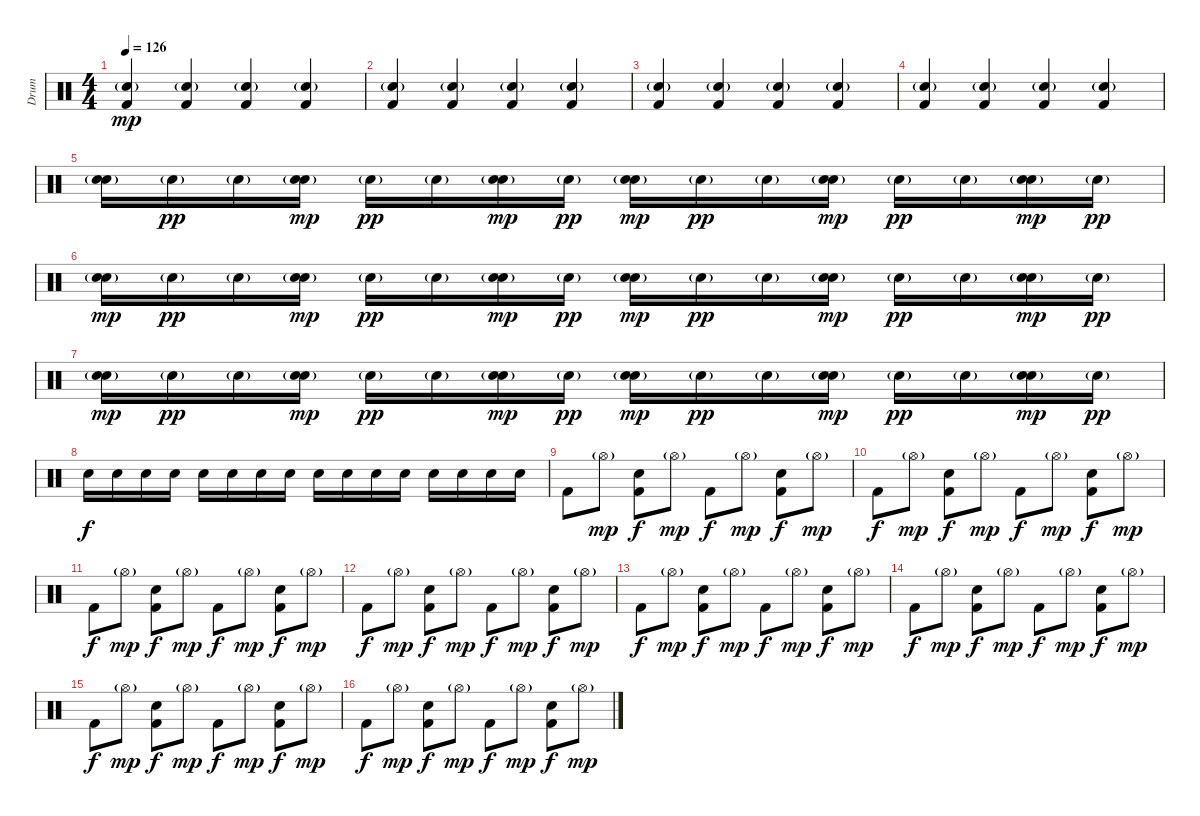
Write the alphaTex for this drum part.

\track ("Drum" "Drum") {instrument percussion}
\staff {score}
\articulation defaults
\ts (4 4)
\tempo 126
\clef neutral
\ks c
("Hand Clap (hit)"{g} "Kick (hit) 2").4{dy mp} ("Hand Clap (hit)"{g} "Kick (hit) 2").4 ("Hand Clap (hit)"{g} "Kick (hit) 2").4 ("Hand Clap (hit)"{g} "Kick (hit) 2").4 |
("Hand Clap (hit)"{g} "Kick (hit) 2").4 ("Hand Clap (hit)"{g} "Kick (hit) 2").4 ("Hand Clap (hit)"{g} "Kick (hit) 2").4 ("Hand Clap (hit)"{g} "Kick (hit) 2").4 |
("Hand Clap (hit)"{g} "Kick (hit) 2").4 ("Hand Clap (hit)"{g} "Kick (hit) 2").4 ("Hand Clap (hit)"{g} "Kick (hit) 2").4 ("Hand Clap (hit)"{g} "Kick (hit) 2").4 |
("Hand Clap (hit)"{g} "Kick (hit) 2").4 ("Hand Clap (hit)"{g} "Kick (hit) 2").4 ("Hand Clap (hit)"{g} "Kick (hit) 2").4 ("Hand Clap (hit)"{g} "Kick (hit) 2").4 |
("Snare (hit) 2" "Electric Snare (hit)"{g}).16 "Electric Snare (hit)"{g}.16{dy pp} "Electric Snare (hit)"{g}.16 ("Snare (hit) 2" "Electric Snare (hit)"{g}).16{dy mp} "Electric Snare (hit)"{g}.16{dy pp} "Electric Snare (hit)"{g}.16 ("Snare (hit) 2" "Electric Snare (hit)"{g}).16{dy mp} "Electric Snare (hit)"{g}.16{dy pp} ("Snare (hit) 2" "Electric Snare (hit)"{g}).16{dy mp} "Electric Snare (hit)"{g}.16{dy pp} "Electric Snare (hit)"{g}.16 ("Snare (hit) 2" "Electric Snare (hit)"{g}).16{dy mp} "Electric Snare (hit)"{g}.16{dy pp} "Electric Snare (hit)"{g}.16 ("Snare (hit) 2" "Electric Snare (hit)"{g}).16{dy mp} "Electric Snare (hit)"{g}.16{dy pp} |
("Snare (hit) 2" "Electric Snare (hit)"{g}).16{dy mp} "Electric Snare (hit)"{g}.16{dy pp} "Electric Snare (hit)"{g}.16 ("Snare (hit) 2" "Electric Snare (hit)"{g}).16{dy mp} "Electric Snare (hit)"{g}.16{dy pp} "Electric Snare (hit)"{g}.16 ("Snare (hit) 2" "Electric Snare (hit)"{g}).16{dy mp} "Electric Snare (hit)"{g}.16{dy pp} ("Snare (hit) 2" "Electric Snare (hit)"{g}).16{dy mp} "Electric Snare (hit)"{g}.16{dy pp} "Electric Snare (hit)"{g}.16 ("Snare (hit) 2" "Electric Snare (hit)"{g}).16{dy mp} "Electric Snare (hit)"{g}.16{dy pp} "Electric Snare (hit)"{g}.16 ("Snare (hit) 2" "Electric Snare (hit)"{g}).16{dy mp} "Electric Snare (hit)"{g}.16{dy pp} |
("Snare (hit) 2" "Electric Snare (hit)"{g}).16{dy mp} "Electric Snare (hit)"{g}.16{dy pp} "Electric Snare (hit)"{g}.16 ("Snare (hit) 2" "Electric Snare (hit)"{g}).16{dy mp} "Electric Snare (hit)"{g}.16{dy pp} "Electric Snare (hit)"{g}.16 ("Snare (hit) 2" "Electric Snare (hit)"{g}).16{dy mp} "Electric Snare (hit)"{g}.16{dy pp} ("Snare (hit) 2" "Electric Snare (hit)"{g}).16{dy mp} "Electric Snare (hit)"{g}.16{dy pp} "Electric Snare (hit)"{g}.16 ("Snare (hit) 2" "Electric Snare (hit)"{g}).16{dy mp} "Electric Snare (hit)"{g}.16{dy pp} "Electric Snare (hit)"{g}.16 ("Snare (hit) 2" "Electric Snare (hit)"{g}).16{dy mp} "Electric Snare (hit)"{g}.16{dy pp} |
"Snare (hit) 2".16{dy f} "Snare (hit) 2".16 "Snare (hit) 2".16 "Snare (hit) 2".16 "Snare (hit) 2".16 "Snare (hit) 2".16 "Snare (hit) 2".16 "Snare (hit) 2".16 "Snare (hit) 2".16 "Snare (hit) 2".16 "Snare (hit) 2".16 "Snare (hit) 2".16 "Snare (hit) 2".16 "Snare (hit) 2".16 "Snare (hit) 2".16 "Snare (hit) 2".16 |
"Kick (hit) 2".8{volume 14} "Hi-Hat (open)"{g}.8{dy mp} ("Electric Snare (hit)" "Kick (hit) 2").8{dy f} "Hi-Hat (open)"{g}.8{dy mp} "Kick (hit) 2".8{dy f} "Hi-Hat (open)"{g}.8{dy mp} ("Electric Snare (hit)" "Kick (hit) 2").8{dy f} "Hi-Hat (open)"{g}.8{dy mp} |
"Kick (hit) 2".8{dy f} "Hi-Hat (open)"{g}.8{dy mp} ("Electric Snare (hit)" "Kick (hit) 2").8{dy f} "Hi-Hat (open)"{g}.8{dy mp} "Kick (hit) 2".8{dy f} "Hi-Hat (open)"{g}.8{dy mp} ("Electric Snare (hit)" "Kick (hit) 2").8{dy f} "Hi-Hat (open)"{g}.8{dy mp} |
"Kick (hit) 2".8{dy f} "Hi-Hat (open)"{g}.8{dy mp} ("Electric Snare (hit)" "Kick (hit) 2").8{dy f} "Hi-Hat (open)"{g}.8{dy mp} "Kick (hit) 2".8{dy f} "Hi-Hat (open)"{g}.8{dy mp} ("Electric Snare (hit)" "Kick (hit) 2").8{dy f} "Hi-Hat (open)"{g}.8{dy mp} |
"Kick (hit) 2".8{dy f} "Hi-Hat (open)"{g}.8{dy mp} ("Electric Snare (hit)" "Kick (hit) 2").8{dy f} "Hi-Hat (open)"{g}.8{dy mp} "Kick (hit) 2".8{dy f} "Hi-Hat (open)"{g}.8{dy mp} ("Electric Snare (hit)" "Kick (hit) 2").8{dy f} "Hi-Hat (open)"{g}.8{dy mp} |
"Kick (hit) 2".8{dy f} "Hi-Hat (open)"{g}.8{dy mp} ("Electric Snare (hit)" "Kick (hit) 2").8{dy f} "Hi-Hat (open)"{g}.8{dy mp} "Kick (hit) 2".8{dy f} "Hi-Hat (open)"{g}.8{dy mp} ("Electric Snare (hit)" "Kick (hit) 2").8{dy f} "Hi-Hat (open)"{g}.8{dy mp} |
"Kick (hit) 2".8{dy f} "Hi-Hat (open)"{g}.8{dy mp} ("Electric Snare (hit)" "Kick (hit) 2").8{dy f} "Hi-Hat (open)"{g}.8{dy mp} "Kick (hit) 2".8{dy f} "Hi-Hat (open)"{g}.8{dy mp} ("Electric Snare (hit)" "Kick (hit) 2").8{dy f} "Hi-Hat (open)"{g}.8{dy mp} |
"Kick (hit) 2".8{dy f} "Hi-Hat (open)"{g}.8{dy mp} ("Electric Snare (hit)" "Kick (hit) 2").8{dy f} "Hi-Hat (open)"{g}.8{dy mp} "Kick (hit) 2".8{dy f} "Hi-Hat (open)"{g}.8{dy mp} ("Electric Snare (hit)" "Kick (hit) 2").8{dy f} "Hi-Hat (open)"{g}.8{dy mp} |
"Kick (hit) 2".8{dy f} "Hi-Hat (open)"{g}.8{dy mp} ("Electric Snare (hit)" "Kick (hit) 2").8{dy f} "Hi-Hat (open)"{g}.8{dy mp} "Kick (hit) 2".8{dy f} "Hi-Hat (open)"{g}.8{dy mp} ("Electric Snare (hit)" "Kick (hit) 2").8{dy f} "Hi-Hat (open)"{g}.8{dy mp}
